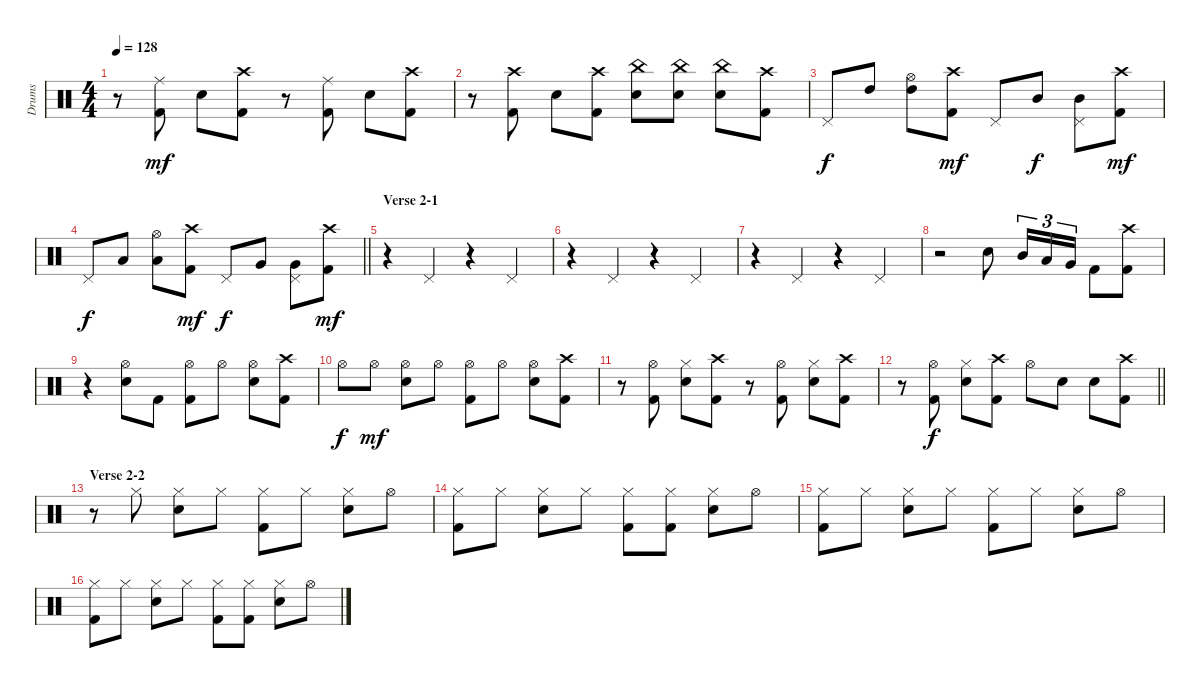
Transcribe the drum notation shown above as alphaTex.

\track ("Drums" "Drums") {instrument percussion}
\staff {score}
\articulation defaults
\ts (4 4)
\tempo 128
\clef neutral
\ks c
r.8{dy mf} ("Ride (middle)" "Kick (hit) 2").8 "Snare (hit) 2".8 ("Crash high (hit)" "Kick (hit) 2").8 r.8 ("Ride (middle)" "Kick (hit) 2").8 "Snare (hit) 2".8 ("Crash high (hit)" "Kick (hit) 2").8 |
r.8 ("Crash high (hit)" "Kick (hit) 2").8 "Snare (hit) 2".8 ("Crash high (hit)" "Kick (hit) 2").8 ("Snare (hit) 2" "China (hit)").8 ("Snare (hit) 2" "China (hit)").8 ("Snare (hit) 2" "China (hit)").8 ("Kick (hit) 2" "Crash high (hit)").8 |
"Pedal Hi-Hat (hit)".8{dy f} "High Tom (hit)".8 ("Hi-Hat (open)" "High Tom (hit)").8 ("Crash high (hit)" "Kick (hit) 2").8{dy mf} "Pedal Hi-Hat (hit)".8 "Mid Tom (hit)".8{dy f} ("Pedal Hi-Hat (hit)" "Mid Tom (hit)").8 ("Kick (hit) 2" "Crash high (hit)").8{dy mf} |
\barLineRight lightlight "Pedal Hi-Hat (hit)".8{dy f} "Low Tom (hit)".8
("Hi-Hat (open)" "Low Tom (hit)").8 ("Crash high (hit)" "Kick (hit) 2").8{dy mf} "Pedal Hi-Hat (hit)".8{dy f} "Very Low Tom (hit)".8 ("Pedal Hi-Hat (hit)" "Very Low Tom (hit)").8 ("Crash high (hit)" "Kick (hit) 2").8{dy mf} |
\section ("" "Verse 2-1")
r.4 "Pedal Hi-Hat (hit)".4 r.4 "Pedal Hi-Hat (hit)".4 |
r.4 "Pedal Hi-Hat (hit)".4 r.4 "Pedal Hi-Hat (hit)".4 |
r.4 "Pedal Hi-Hat (hit)".4 r.4 "Pedal Hi-Hat (hit)".4 |
r.2 "Snare (hit) 2".8 "Mid Tom (hit)".16{tu (3 2)} "Low Tom (hit)".16{tu (3 2)} "Very Low Tom (hit)".16{tu (3 2)} "Kick (hit) 2".8 ("Crash high (hit)" "Kick (hit) 2").8 |
r.4 ("Hi-Hat (open)" "Snare (hit) 2").8 "Kick (hit) 2".8 ("Hi-Hat (open)" "Kick (hit) 2").8 "Hi-Hat (open)".8 ("Hi-Hat (open)" "Snare (hit) 2").8 ("Kick (hit) 2" "Crash high (hit)").8 |
"Hi-Hat (open)".8{dy f} "Hi-Hat (open)".8{dy mf} ("Hi-Hat (open)" "Snare (hit) 2").8 "Hi-Hat (open)".8 ("Hi-Hat (open)" "Kick (hit) 2").8 "Hi-Hat (open)".8 ("Hi-Hat (open)" "Snare (hit) 2").8 ("Crash high (hit)" "Kick (hit) 2").8 |
r.8 ("Hi-Hat (open)" "Kick (hit) 2").8 ("Hi-Hat (closed)" "Snare (hit) 2").8 ("Crash high (hit)" "Kick (hit) 2").8 r.8 ("Hi-Hat (open)" "Kick (hit) 2").8 ("Snare (hit) 2" "Hi-Hat (closed)").8 ("Crash high (hit)" "Kick (hit) 2").8 |
\barLineRight lightlight
r.8 ("Hi-Hat (open)" "Kick (hit) 2").8{dy f} ("Hi-Hat (closed)" "Snare (hit) 2").8 ("Crash high (hit)" "Kick (hit) 2").8 "Hi-Hat (open)".8 "Snare (hit) 2".8 "Snare (hit) 2".8 ("Crash high (hit)" "Kick (hit) 2").8 |
\section ("" "Verse 2-2")
r.8 "Hi-Hat (closed)".8 ("Hi-Hat (closed)" "Snare (hit) 2").8 "Hi-Hat (closed)".8 ("Hi-Hat (closed)" "Kick (hit) 2").8 "Hi-Hat (closed)".8 ("Hi-Hat (closed)" "Snare (hit) 2").8 "Hi-Hat (open)".8 |
("Hi-Hat (closed)" "Kick (hit) 2").8 "Hi-Hat (closed)".8 ("Hi-Hat (closed)" "Snare (hit) 2").8 "Hi-Hat (closed)".8 ("Hi-Hat (closed)" "Kick (hit) 2").8 ("Hi-Hat (closed)" "Kick (hit) 2").8 ("Hi-Hat (closed)" "Snare (hit) 2").8 "Hi-Hat (open)".8 |
("Hi-Hat (closed)" "Kick (hit) 2").8 "Hi-Hat (closed)".8 ("Hi-Hat (closed)" "Snare (hit) 2").8 "Hi-Hat (closed)".8 ("Hi-Hat (closed)" "Kick (hit) 2").8 "Hi-Hat (closed)".8 ("Hi-Hat (closed)" "Snare (hit) 2").8 "Hi-Hat (open)".8 |
("Hi-Hat (closed)" "Kick (hit) 2").8 "Hi-Hat (closed)".8 ("Hi-Hat (closed)" "Snare (hit) 2").8 "Hi-Hat (closed)".8 ("Hi-Hat (closed)" "Kick (hit) 2").8 ("Hi-Hat (closed)" "Kick (hit) 2").8 ("Hi-Hat (closed)" "Snare (hit) 2").8 "Hi-Hat (open)".8
